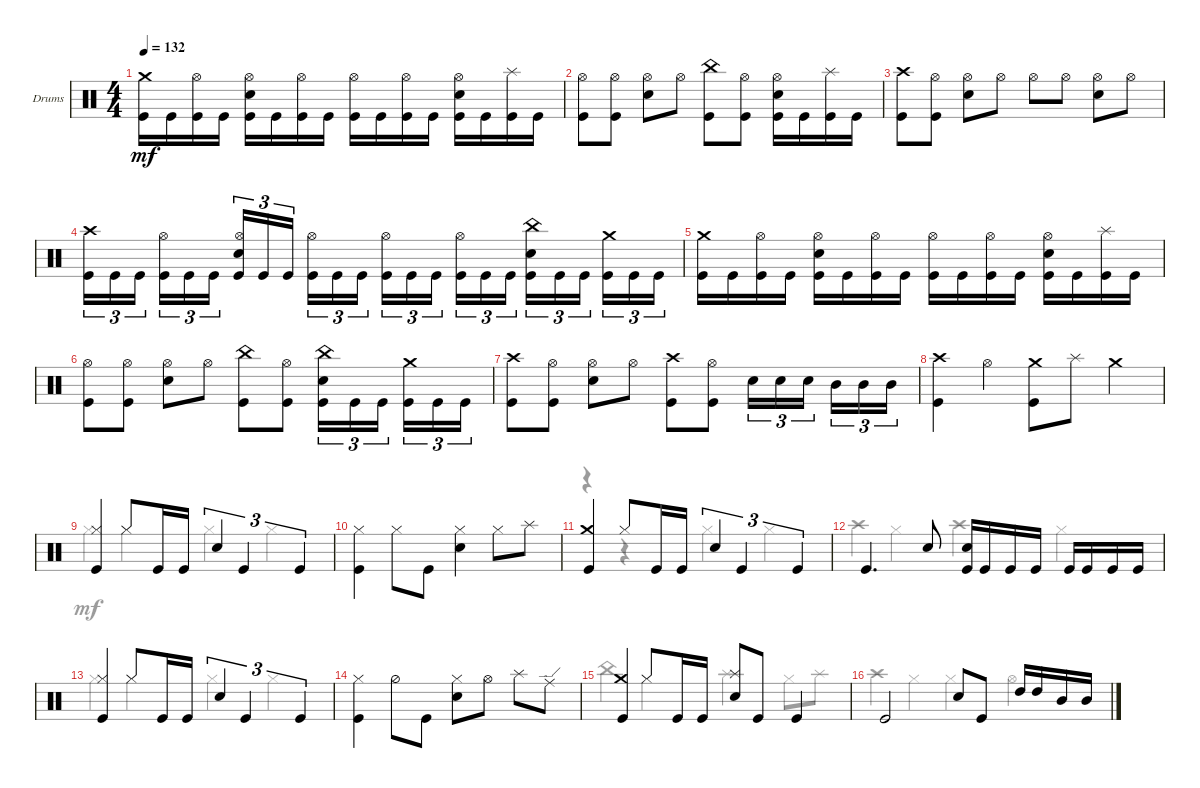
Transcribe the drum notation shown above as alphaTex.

\defaultSystemsLayout 4
\bracketExtendMode groupsimilarinstruments
\firstSystemTrackNameOrientation horizontal
\otherSystemsTrackNameOrientation horizontal
\track ("Drumkit" "Drums") {instrument percussion}
\staff {score}
\articulation defaults
\voice
\ts (4 4)
\tempo 132
\clef neutral
\scale
0.333333
\ks c
("Kick (hit)" "Crash medium (hit)").16{dy mf} "Kick (hit)".16 ("Kick (hit)" "Hi-Hat (open)").16 "Kick (hit)".16 ("Kick (hit)" "Snare (hit) 2" "Hi-Hat (open)").16 "Kick (hit)".16 ("Kick (hit)" "Hi-Hat (open)").16 "Kick (hit)".16 ("Kick (hit)" "Hi-Hat (open)").16 "Kick (hit)".16 ("Kick (hit)" "Hi-Hat (open)").16 "Kick (hit)".16 ("Kick (hit)" "Snare (hit) 2" "Hi-Hat (open)").16 "Kick (hit)".16 ("Kick (hit)" "Splash (hit)").16 "Kick (hit)".16 |
\scale
0.333333 ("Hi-Hat (open)" "Kick (hit)").8 ("Hi-Hat (open)" "Kick (hit)").8 ("Hi-Hat (open)" "Snare (hit) 2").8 "Hi-Hat (open)".8 ("Kick (hit)" "China (hit)").8 ("Hi-Hat (open)" "Kick (hit)").8 ("Kick (hit)" "Hi-Hat (open)" "Snare (hit) 2").16 "Kick (hit)".16 ("Kick (hit)" "Splash (hit)").16 "Kick (hit)".16 |
\scale
0.333333 ("Kick (hit)" "Crash high (hit)").8 ("Hi-Hat (open)" "Kick (hit)").8 ("Hi-Hat (open)" "Snare (hit) 2").8 "Hi-Hat (open)".8 "Hi-Hat (open)".8 "Hi-Hat (open)".8 ("Hi-Hat (open)" "Snare (hit) 2").8 "Hi-Hat (open)".8 |
\scale
0.333333 ("Kick (hit)" "Crash high (hit)").16{tu (3 2)} "Kick (hit)".16{tu (3 2)} "Kick (hit)".16{tu (3 2)} ("Kick (hit)" "Hi-Hat (open)").16{tu (3 2)} "Kick (hit)".16{tu (3 2)} "Kick (hit)".16{tu (3 2)} ("Kick (hit)" "Snare (hit) 2" "Hi-Hat (open)").16{tu (3 2)} "Kick (hit)".16{tu (3 2)} "Kick (hit)".16{tu (3 2)} ("Kick (hit)" "Hi-Hat (open)").16{tu (3 2)} "Kick (hit)".16{tu (3 2)} "Kick (hit)".16{tu (3 2)} ("Kick (hit)" "Hi-Hat (open)").16{tu (3 2)} "Kick (hit)".16{tu (3 2)} "Kick (hit)".16{tu (3 2)} ("Kick (hit)" "Hi-Hat (open)").16{tu (3 2)} "Kick (hit)".16{tu (3 2)} "Kick (hit)".16{tu (3 2)} ("Kick (hit)" "Snare (hit) 2" "China (hit)").16{tu (3 2)} "Kick (hit)".16{tu (3 2)} "Kick (hit)".16{tu (3 2)} ("Kick (hit)" "Crash medium (hit)").16{tu (3 2)} "Kick (hit)".16{tu (3 2)} "Kick (hit)".16{tu (3 2)} |
\scale
0.333333 ("Kick (hit)" "Crash medium (hit)").16 "Kick (hit)".16 ("Kick (hit)" "Hi-Hat (open)").16 "Kick (hit)".16 ("Kick (hit)" "Snare (hit) 2" "Hi-Hat (open)").16 "Kick (hit)".16 ("Kick (hit)" "Hi-Hat (open)").16 "Kick (hit)".16 ("Kick (hit)" "Hi-Hat (open)").16 "Kick (hit)".16 ("Kick (hit)" "Hi-Hat (open)").16 "Kick (hit)".16 ("Kick (hit)" "Snare (hit) 2" "Hi-Hat (open)").16 "Kick (hit)".16 ("Kick (hit)" "Splash (hit)").16 "Kick (hit)".16 |
\scale
0.333333 ("Hi-Hat (open)" "Kick (hit)").8 ("Hi-Hat (open)" "Kick (hit)").8 ("Hi-Hat (open)" "Snare (hit) 2").8 "Hi-Hat (open)".8 ("Kick (hit)" "China (hit)").8 ("Hi-Hat (open)" "Kick (hit)").8 ("Kick (hit)" "Snare (hit) 2" "China (hit)").16{tu (3 2)} "Kick (hit)".16{tu (3 2)} "Kick (hit)".16{tu (3 2)} ("Kick (hit)" "Crash medium (hit)").16{tu (3 2)} "Kick (hit)".16{tu (3 2)} "Kick (hit)".16{tu (3 2)} |
\scale
0.333333 ("Kick (hit)" "Crash high (hit)").8 ("Hi-Hat (open)" "Kick (hit)").8 ("Hi-Hat (open)" "Snare (hit) 2").8 "Hi-Hat (open)".8 ("Kick (hit)" "Crash high (hit)").8 ("Hi-Hat (open)" "Kick (hit)").8 "Snare (hit) 2".16{tu (3 2)} "Snare (hit) 2".16{tu (3 2)} "Snare (hit) 2".16{tu (3 2)} "Mid Tom (hit)".16{tu (3 2)} "Mid Tom (hit)".16{tu (3 2)} "Mid Tom (hit)".16{tu (3 2)} |
\scale
0.333333 ("Kick (hit)" "Crash high (hit)").4 "Hi-Hat (open)".4 ("Kick (hit)" "Crash medium (hit)").8 "Splash (hit)".8 "Crash medium (hit)".4 |
\scale
0.333333 ("Kick (hit)" "Hi-Hat (closed)").4 "Hi-Hat (closed)".8 "Kick (hit)".16 "Kick (hit)".16 "Snare (hit) 2".4{tu (3 2)} "Kick (hit)".4{tu (3 2)} "Kick (hit)".4{tu (3 2)} |
\scale
0.333333 ("Kick (hit)" "Hi-Hat (closed)").4 "Hi-Hat (closed)".8 "Kick (hit)".8 ("Snare (hit) 2" "Hi-Hat (closed)").4 "Hi-Hat (closed)".8 "Splash (hit)".8 |
\scale
0.333333 ("Kick (hit)" "Crash medium (hit)").4 "Hi-Hat (closed)".8 "Kick (hit)".16 "Kick (hit)".16 "Snare (hit) 2".4{tu (3 2)} "Kick (hit)".4{tu (3 2)} "Kick (hit)".4{tu (3 2)} |
\scale
0.333333 "Kick (hit)".4{d} "Snare (hit) 2".8 ("Snare (hit) 2" "Kick (hit)").16 "Kick (hit)".16 "Kick (hit)".16 "Kick (hit)".16 "Kick (hit)".16 "Kick (hit)".16 "Kick (hit)".16 "Kick (hit)".16 |
\scale
0.333333 ("Kick (hit)" "Hi-Hat (closed)").4 "Hi-Hat (closed)".8 "Kick (hit)".16 "Kick (hit)".16 "Snare (hit) 2".4{tu (3 2)} "Kick (hit)".4{tu (3 2)} "Kick (hit)".4{tu (3 2)} |
\scale
0.333333 ("Kick (hit)" "Hi-Hat (closed)").4 "Hi-Hat (half)".8 "Kick (hit)".8 ("Snare (hit) 2" "Hi-Hat (closed)").8 "Hi-Hat (open)".8 "Splash (hit)".8 "Ride (edge)".8 |
\scale
0.333333 ("Kick (hit)" "Crash medium (hit)").4 "Hi-Hat (closed)".8 "Kick (hit)".16 "Kick (hit)".16 ("Snare (hit) 2" "Splash (hit)").8 "Kick (hit)".8 "Kick (hit)".4 |
\scale
0.333333 "Kick (hit)".2 "Snare (hit) 2".8 "Kick (hit)".8 "High Tom (hit)".16 "High Tom (hit)".16 "Mid Tom (hit)".16 "Mid Tom (hit)".16
\voice
\clef neutral
\ottava regular
\simile none
\scale
0.333333
\ks c
|
\scale
0.333333 |
\scale
0.333333 |
\scale
0.333333 |
\scale
0.333333 |
\scale
0.333333 |
\scale
0.333333 |
\scale
0.333333 |
\scale
0.333333 "Hi-Hat (closed)".4 "Hi-Hat (closed)".4 "Hi-Hat (closed)".4 "Hi-Hat (closed)".4 |
\scale
0.333333 |
\scale
0.333333 r.4 r.4 "Hi-Hat (closed)".4 "Hi-Hat (closed)".4 |
\scale
0.333333 "Crash high (hit)".4 "Hi-Hat (closed)".4 "Crash high (hit)".4 "Hi-Hat (closed)".4 |
\scale
0.333333 "Hi-Hat (closed)".4 "Hi-Hat (closed)".4 "Hi-Hat (closed)".4 "Hi-Hat (closed)".4 |
\scale
0.333333 |
\scale
0.333333 "China (hit)".4 "Hi-Hat (closed)".4 "Splash (hit)".4 "Hi-Hat (closed)".8 "Splash (hit)".8 |
\scale
0.333333 "Crash high (hit)".4 "Hi-Hat (closed)".4 "Hi-Hat (closed)".4 "Hi-Hat (open)".4
